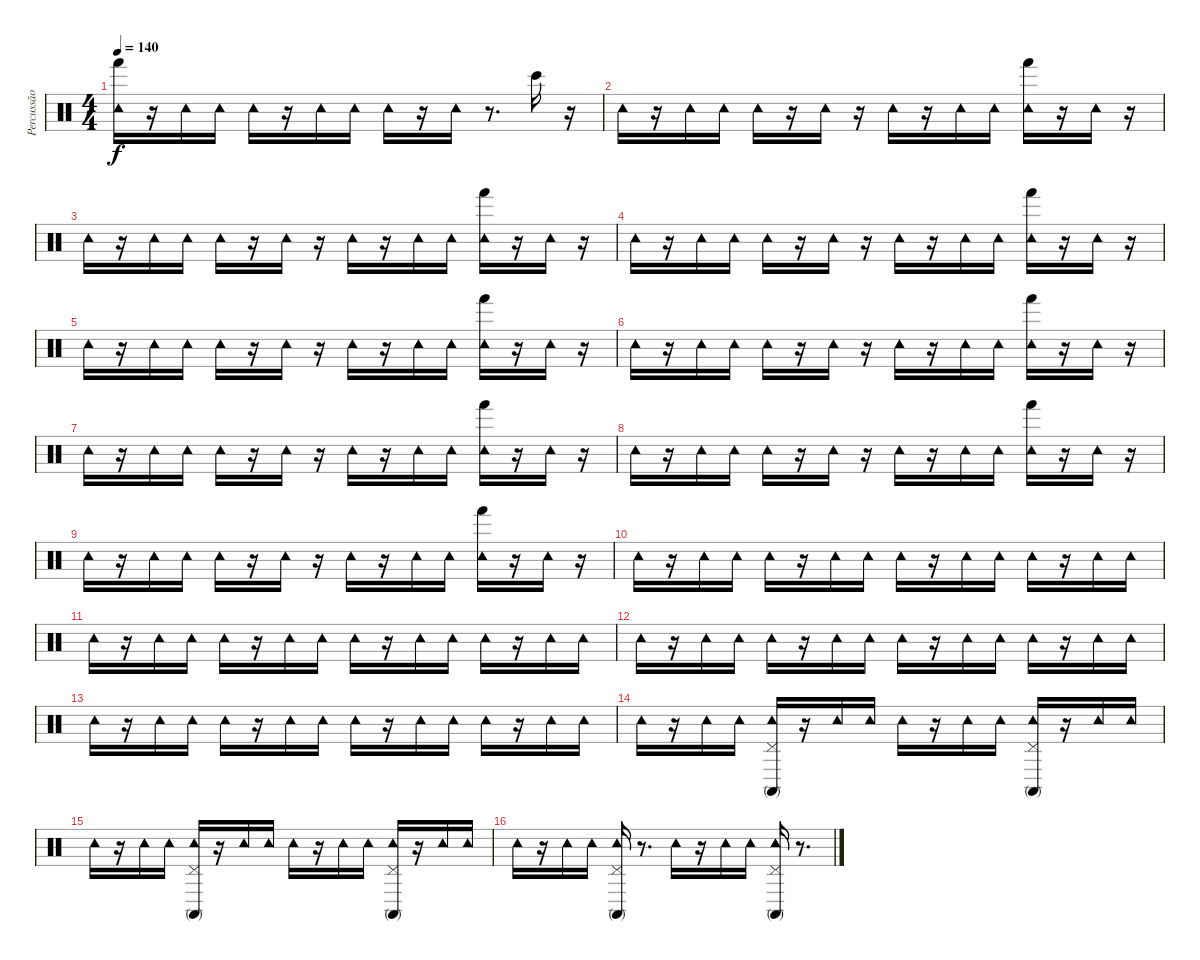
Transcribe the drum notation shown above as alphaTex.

\track ("Percussão" "Percussão") {instrument percussion}
\staff {score}
\articulation defaults
\ts (4 4)
\tempo 140
\clef neutral
\ks c
("Tambourine (hit)" "Hand (hit)").16{dy f} r.16 "Tambourine (hit)".16 "Tambourine (hit)".16 "Tambourine (hit)".16 r.16 "Tambourine (hit)".16 "Tambourine (hit)".16 "Tambourine (hit)".16 r.16 "Tambourine (hit)".16 r.8{d} "Bongo High (hit)".16 r.16 |
"Tambourine (hit)".16 r.16 "Tambourine (hit)".16 "Tambourine (hit)".16 "Tambourine (hit)".16 r.16 "Tambourine (hit)".16 r.16 "Tambourine (hit)".16 r.16 "Tambourine (hit)".16 "Tambourine (hit)".16 ("Tambourine (hit)" "Hand (hit)").16 r.16 "Tambourine (hit)".16 r.16 |
"Tambourine (hit)".16 r.16 "Tambourine (hit)".16 "Tambourine (hit)".16 "Tambourine (hit)".16 r.16 "Tambourine (hit)".16 r.16 "Tambourine (hit)".16 r.16 "Tambourine (hit)".16 "Tambourine (hit)".16 ("Tambourine (hit)" "Hand (hit)").16 r.16 "Tambourine (hit)".16 r.16 |
"Tambourine (hit)".16 r.16 "Tambourine (hit)".16 "Tambourine (hit)".16 "Tambourine (hit)".16 r.16 "Tambourine (hit)".16 r.16 "Tambourine (hit)".16 r.16 "Tambourine (hit)".16 "Tambourine (hit)".16 ("Tambourine (hit)" "Hand (hit)").16 r.16 "Tambourine (hit)".16 r.16 |
"Tambourine (hit)".16 r.16 "Tambourine (hit)".16 "Tambourine (hit)".16 "Tambourine (hit)".16 r.16 "Tambourine (hit)".16 r.16 "Tambourine (hit)".16 r.16 "Tambourine (hit)".16 "Tambourine (hit)".16 ("Tambourine (hit)" "Hand (hit)").16 r.16 "Tambourine (hit)".16 r.16 |
"Tambourine (hit)".16 r.16 "Tambourine (hit)".16 "Tambourine (hit)".16 "Tambourine (hit)".16 r.16 "Tambourine (hit)".16 r.16 "Tambourine (hit)".16 r.16 "Tambourine (hit)".16 "Tambourine (hit)".16 ("Tambourine (hit)" "Hand (hit)").16 r.16 "Tambourine (hit)".16 r.16 |
"Tambourine (hit)".16 r.16 "Tambourine (hit)".16 "Tambourine (hit)".16 "Tambourine (hit)".16 r.16 "Tambourine (hit)".16 r.16 "Tambourine (hit)".16 r.16 "Tambourine (hit)".16 "Tambourine (hit)".16 ("Tambourine (hit)" "Hand (hit)").16 r.16 "Tambourine (hit)".16 r.16 |
"Tambourine (hit)".16 r.16 "Tambourine (hit)".16 "Tambourine (hit)".16 "Tambourine (hit)".16 r.16 "Tambourine (hit)".16 r.16 "Tambourine (hit)".16 r.16 "Tambourine (hit)".16 "Tambourine (hit)".16 ("Tambourine (hit)" "Hand (hit)").16 r.16 "Tambourine (hit)".16 r.16 |
"Tambourine (hit)".16 r.16 "Tambourine (hit)".16 "Tambourine (hit)".16 "Tambourine (hit)".16 r.16 "Tambourine (hit)".16 r.16 "Tambourine (hit)".16 r.16 "Tambourine (hit)".16 "Tambourine (hit)".16 ("Tambourine (hit)" "Hand (hit)").16 r.16 "Tambourine (hit)".16 r.16 |
"Tambourine (hit)".16 r.16 "Tambourine (hit)".16 "Tambourine (hit)".16 "Tambourine (hit)".16 r.16 "Tambourine (hit)".16 "Tambourine (hit)".16 "Tambourine (hit)".16 r.16 "Tambourine (hit)".16 "Tambourine (hit)".16 "Tambourine (hit)".16 r.16 "Tambourine (hit)".16 "Tambourine (hit)".16 |
"Tambourine (hit)".16 r.16 "Tambourine (hit)".16 "Tambourine (hit)".16 "Tambourine (hit)".16 r.16 "Tambourine (hit)".16 "Tambourine (hit)".16 "Tambourine (hit)".16 r.16 "Tambourine (hit)".16 "Tambourine (hit)".16 "Tambourine (hit)".16 r.16 "Tambourine (hit)".16 "Tambourine (hit)".16 |
"Tambourine (hit)".16 r.16 "Tambourine (hit)".16 "Tambourine (hit)".16 "Tambourine (hit)".16 r.16 "Tambourine (hit)".16 "Tambourine (hit)".16 "Tambourine (hit)".16 r.16 "Tambourine (hit)".16 "Tambourine (hit)".16 "Tambourine (hit)".16 r.16 "Tambourine (hit)".16 "Tambourine (hit)".16 |
"Tambourine (hit)".16 r.16 "Tambourine (hit)".16 "Tambourine (hit)".16 "Tambourine (hit)".16 r.16 "Tambourine (hit)".16 "Tambourine (hit)".16 "Tambourine (hit)".16 r.16 "Tambourine (hit)".16 "Tambourine (hit)".16 "Tambourine (hit)".16 r.16 "Tambourine (hit)".16 "Tambourine (hit)".16 |
"Tambourine (hit)".16 r.16 "Tambourine (hit)".16 "Tambourine (hit)".16 ("Tambourine (hit)" "Pedal Hi-Hat (hit)" "Conga high (mute)").16 r.16 "Tambourine (hit)".16 "Tambourine (hit)".16 "Tambourine (hit)".16 r.16 "Tambourine (hit)".16 "Tambourine (hit)".16 ("Tambourine (hit)" "Pedal Hi-Hat (hit)" "Conga high (mute)").16 r.16 "Tambourine (hit)".16 "Tambourine (hit)".16 |
"Tambourine (hit)".16 r.16 "Tambourine (hit)".16 "Tambourine (hit)".16 ("Tambourine (hit)" "Pedal Hi-Hat (hit)" "Conga high (mute)").16 r.16 "Tambourine (hit)".16 "Tambourine (hit)".16 "Tambourine (hit)".16 r.16 "Tambourine (hit)".16 "Tambourine (hit)".16 ("Tambourine (hit)" "Pedal Hi-Hat (hit)" "Conga high (mute)").16 r.16 "Tambourine (hit)".16 "Tambourine (hit)".16 |
"Tambourine (hit)".16 r.16 "Tambourine (hit)".16 "Tambourine (hit)".16 ("Conga high (mute)" "Tambourine (hit)" "Pedal Hi-Hat (hit)").16 r.8{d} "Tambourine (hit)".16 r.16 "Tambourine (hit)".16 "Tambourine (hit)".16 ("Conga high (mute)" "Tambourine (hit)" "Pedal Hi-Hat (hit)").16 r.8{d}
